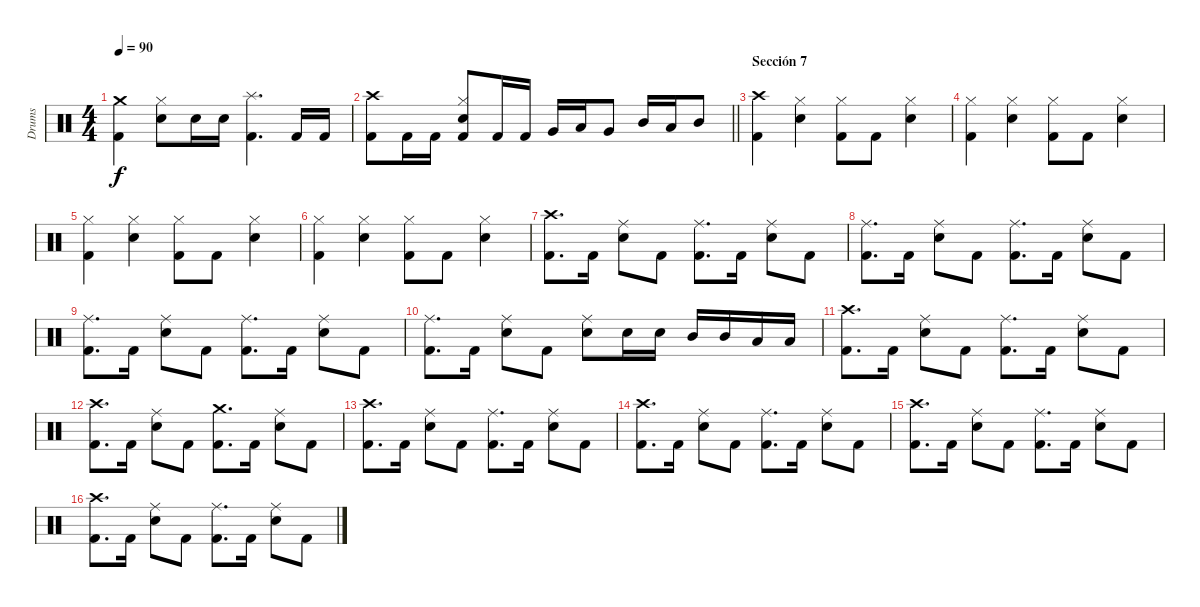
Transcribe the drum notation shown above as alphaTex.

\track ("Drums" "Drums") {instrument percussion}
\staff {score}
\articulation defaults
\ts (4 4)
\tempo 90
\clef neutral
\ks c
("Crash medium (hit)" "Kick (hit) 2").4{dy f} ("Hi-Hat (closed)" "Snare (hit) 2").8 "Snare (hit) 2".16 "Snare (hit) 2".16 ("Splash (hit)" "Kick (hit) 2").4{d} "Kick (hit) 2".16 "Kick (hit) 2".16 |
\barLineRight lightlight
("Crash high (hit)" "Kick (hit) 2").8 "Kick (hit) 2".16 "Kick (hit) 2".16 ("Hi-Hat (closed)" "Snare (hit) 2" "Kick (hit) 2").8 "Kick (hit) 2".16 "Kick (hit) 2".16 "Very Low Tom (hit)".16 "Low Floor Tom (hit)".16 "Very Low Tom (hit)".8 "Mid Tom (hit)".16 "Low Tom (hit)".16 "Mid Tom (hit)".8 |
\section ("" "Sección 7")
("Crash high (hit)" "Kick (hit) 2").4 ("Hi-Hat (closed)" "Snare (hit) 2").4 ("Hi-Hat (closed)" "Kick (hit) 2").8 "Kick (hit) 2".8 ("Hi-Hat (closed)" "Snare (hit) 2").4 |
("Hi-Hat (closed)" "Kick (hit) 2").4 ("Hi-Hat (closed)" "Snare (hit) 2").4 ("Hi-Hat (closed)" "Kick (hit) 2").8 "Kick (hit) 2".8 ("Hi-Hat (closed)" "Snare (hit) 2").4 |
("Hi-Hat (closed)" "Kick (hit) 2").4 ("Hi-Hat (closed)" "Snare (hit) 2").4 ("Hi-Hat (closed)" "Kick (hit) 2").8 "Kick (hit) 2".8 ("Hi-Hat (closed)" "Snare (hit) 2").4 |
("Hi-Hat (closed)" "Kick (hit) 2").4 ("Hi-Hat (closed)" "Snare (hit) 2").4 ("Hi-Hat (closed)" "Kick (hit) 2").8 "Kick (hit) 2".8 ("Hi-Hat (closed)" "Snare (hit) 2").4 |
("Crash high (hit)" "Kick (hit) 2").8{d} "Kick (hit) 2".16 ("Ride (middle)" "Snare (hit) 2").8 "Kick (hit) 2".8 ("Ride (middle)" "Kick (hit) 2").8{d} "Kick (hit) 2".16 ("Ride (middle)" "Snare (hit) 2").8 "Kick (hit) 2".8 |
("Ride (middle)" "Kick (hit) 2").8{d} "Kick (hit) 2".16 ("Ride (middle)" "Snare (hit) 2").8 "Kick (hit) 2".8 ("Ride (middle)" "Kick (hit) 2").8{d} "Kick (hit) 2".16 ("Ride (middle)" "Snare (hit) 2").8 "Kick (hit) 2".8 |
("Ride (middle)" "Kick (hit) 2").8{d} "Kick (hit) 2".16 ("Ride (middle)" "Snare (hit) 2").8 "Kick (hit) 2".8 ("Ride (middle)" "Kick (hit) 2").8{d} "Kick (hit) 2".16 ("Ride (middle)" "Snare (hit) 2").8 "Kick (hit) 2".8 |
("Ride (middle)" "Kick (hit) 2").8{d} "Kick (hit) 2".16 ("Ride (middle)" "Snare (hit) 2").8 "Kick (hit) 2".8 ("Ride (middle)" "Snare (hit) 2").8 "Snare (hit) 2".16 "Snare (hit) 2".16 "Mid Tom (hit)".16 "Mid Tom (hit)".16 "Low Tom (hit)".16 "Low Tom (hit)".16 |
("Crash high (hit)" "Kick (hit) 2").8{d} "Kick (hit) 2".16 ("Ride (middle)" "Snare (hit) 2").8 "Kick (hit) 2".8 ("Ride (middle)" "Kick (hit) 2").8{d} "Kick (hit) 2".16 ("Ride (middle)" "Snare (hit) 2").8 "Kick (hit) 2".8 |
("Crash high (hit)" "Kick (hit) 2").8{d} "Kick (hit) 2".16 ("Ride (middle)" "Snare (hit) 2").8 "Kick (hit) 2".8 ("Crash medium (hit)" "Kick (hit) 2").8{d} "Kick (hit) 2".16 ("Ride (middle)" "Snare (hit) 2").8 "Kick (hit) 2".8 |
("Crash high (hit)" "Kick (hit) 2").8{d} "Kick (hit) 2".16 ("Ride (middle)" "Snare (hit) 2").8 "Kick (hit) 2".8 ("Ride (middle)" "Kick (hit) 2").8{d} "Kick (hit) 2".16 ("Ride (middle)" "Snare (hit) 2").8 "Kick (hit) 2".8 |
("Crash high (hit)" "Kick (hit) 2").8{d} "Kick (hit) 2".16 ("Ride (middle)" "Snare (hit) 2").8 "Kick (hit) 2".8 ("Ride (middle)" "Kick (hit) 2").8{d} "Kick (hit) 2".16 ("Ride (middle)" "Snare (hit) 2").8 "Kick (hit) 2".8 |
("Crash high (hit)" "Kick (hit) 2").8{d} "Kick (hit) 2".16 ("Ride (middle)" "Snare (hit) 2").8 "Kick (hit) 2".8 ("Ride (middle)" "Kick (hit) 2").8{d} "Kick (hit) 2".16 ("Ride (middle)" "Snare (hit) 2").8 "Kick (hit) 2".8 |
("Crash high (hit)" "Kick (hit) 2").8{d} "Kick (hit) 2".16 ("Ride (middle)" "Snare (hit) 2").8 "Kick (hit) 2".8 ("Ride (middle)" "Kick (hit) 2").8{d} "Kick (hit) 2".16 ("Ride (middle)" "Snare (hit) 2").8 "Kick (hit) 2".8
